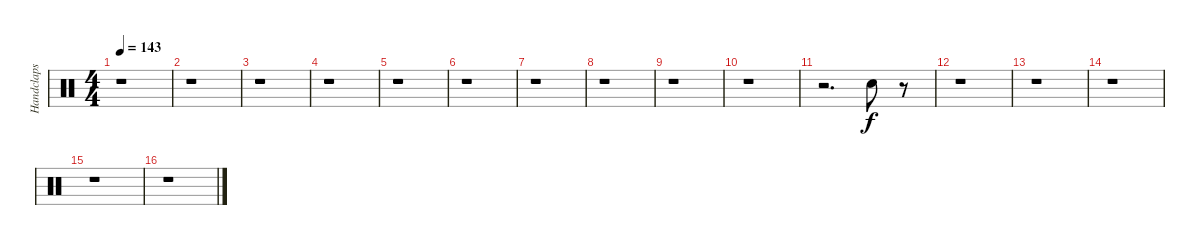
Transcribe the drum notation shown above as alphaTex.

\track ("Handclaps" "Handclaps") {instrument percussion}
\staff {score}
\articulation defaults
\ts (4 4)
\tempo 143
\clef neutral
\ks c
r.1{dy f} |
r.1 |
r.1 |
r.1 |
r.1 |
r.1 |
r.1 |
r.1 |
r.1 |
r.1 |
r.2{d} "Hand Clap (hit)".8 r.8 |
r.1 |
r.1 |
r.1 |
r.1 |
r.1
